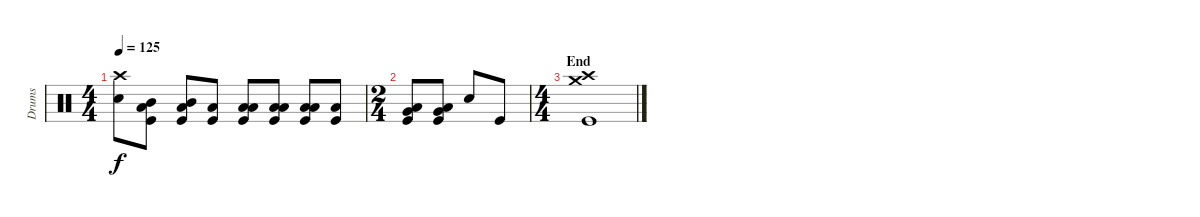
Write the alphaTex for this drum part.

\track ("Drums" "Drums") {instrument percussion}
\staff {score}
\articulation defaults
\ts (4 4)
\tempo 125
\clef neutral
\ks c
("Crash high (hit)" "Snare (hit) 2").8{dy f} ("Mid Tom (hit)" "Low Floor Tom (hit)" "Kick (hit)").8 ("Mid Tom (hit)" "Low Floor Tom (hit)" "Kick (hit)").8 ("Low Floor Tom (hit)" "Kick (hit)").8 ("Low Tom (hit)" "Low Floor Tom (hit)" "Kick (hit)").8 ("Low Tom (hit)" "Low Floor Tom (hit)" "Kick (hit)").8 ("Low Tom (hit)" "Low Floor Tom (hit)" "Kick (hit)").8 ("Low Floor Tom (hit)" "Kick (hit)").8 |
\ts (2 4)
("Very Low Tom (hit)" "Low Floor Tom (hit)" "Kick (hit)").8 ("Very Low Tom (hit)" "Low Floor Tom (hit)" "Kick (hit)").8 "Snare (hit) 2".8 "Kick (hit)".8 |
\ts (4 4)
\section ("" "End")
("Crash high (hit)" "Crash medium (hit)" "Kick (hit)").1
